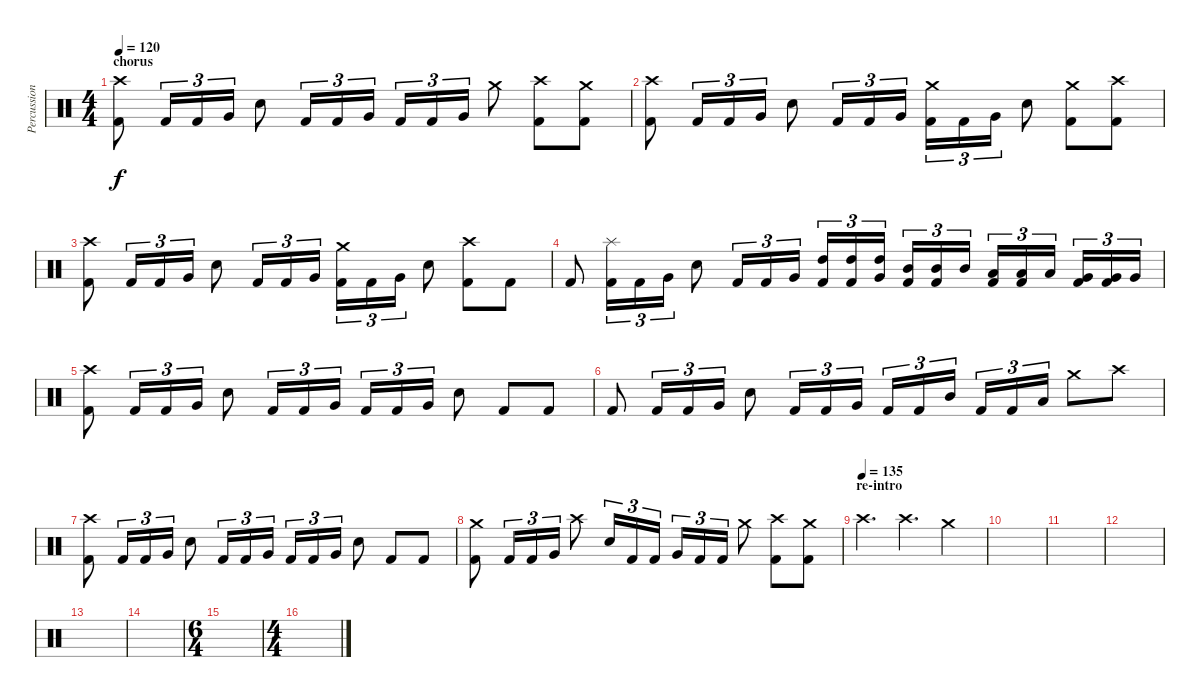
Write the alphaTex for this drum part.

\track ("Percussion" "Percussion") {instrument percussion}
\staff {score}
\articulation defaults
\ts (4 4)
\section ("" "chorus")
\tempo 120
\clef neutral
\ks c
("Crash high (hit)" "Kick (hit) 2").8{dy f} "Kick (hit) 2".16{tu (3 2)} "Kick (hit) 2".16{tu (3 2)} "Very Low Tom (hit)".16{tu (3 2)} "Snare (hit) 2".8 "Kick (hit) 2".16{tu (3 2)} "Kick (hit) 2".16{tu (3 2)} "Very Low Tom (hit)".16{tu (3 2)} "Kick (hit) 2".16{tu (3 2)} "Kick (hit) 2".16{tu (3 2)} "Very Low Tom (hit)".16{tu (3 2)} "Crash medium (hit)".8 ("Crash high (hit)" "Kick (hit) 2").8 ("Crash medium (hit)" "Kick (hit) 2").8 |
("Crash high (hit)" "Kick (hit) 2").8 "Kick (hit) 2".16{tu (3 2)} "Kick (hit) 2".16{tu (3 2)} "Very Low Tom (hit)".16{tu (3 2)} "Snare (hit) 2".8 "Kick (hit) 2".16{tu (3 2)} "Kick (hit) 2".16{tu (3 2)} "Very Low Tom (hit)".16{tu (3 2)} ("Crash medium (hit)" "Kick (hit) 2").16{tu (3 2)} "Kick (hit) 2".16{tu (3 2)} "Very Low Tom (hit)".16{tu (3 2)} "Snare (hit) 2".8 ("Crash medium (hit)" "Kick (hit) 2").8 ("Crash high (hit)" "Kick (hit) 2").8 |
("Crash high (hit)" "Kick (hit) 2").8 "Kick (hit) 2".16{tu (3 2)} "Kick (hit) 2".16{tu (3 2)} "Very Low Tom (hit)".16{tu (3 2)} "Snare (hit) 2".8 "Kick (hit) 2".16{tu (3 2)} "Kick (hit) 2".16{tu (3 2)} "Very Low Tom (hit)".16{tu (3 2)} ("Crash medium (hit)" "Kick (hit) 2").16{tu (3 2)} "Kick (hit) 2".16{tu (3 2)} "Very Low Tom (hit)".16{tu (3 2)} "Snare (hit) 2".8 ("Crash high (hit)" "Kick (hit) 2").8 "Kick (hit) 2".8 |
"Kick (hit) 2".8 ("Splash (hit)" "Kick (hit) 2").16{tu (3 2)} "Kick (hit) 2".16{tu (3 2)} "Very Low Tom (hit)".16{tu (3 2)} "Snare (hit) 2".8 "Kick (hit) 2".16{tu (3 2)} "Kick (hit) 2".16{tu (3 2)} "Very Low Tom (hit)".16{tu (3 2)} ("High Tom (hit)" "Kick (hit) 2").16{tu (3 2)} ("High Tom (hit)" "Kick (hit) 2").16{tu (3 2)} ("High Tom (hit)" "Very Low Tom (hit)").16{tu (3 2) beam splitsecondary} ("Mid Tom (hit)" "Kick (hit) 2").16{tu (3 2)} ("Mid Tom (hit)" "Kick (hit) 2").16{tu (3 2)} "Mid Tom (hit)".16{tu (3 2)} ("Low Tom (hit)" "Kick (hit) 2").16{tu (3 2)} ("Low Tom (hit)" "Kick (hit) 2").16{tu (3 2)} "Low Tom (hit)".16{tu (3 2) beam splitsecondary} ("Very Low Tom (hit)" "Kick (hit) 2").16{tu (3 2)} ("Very Low Tom (hit)" "Kick (hit) 2").16{tu (3 2)} "Very Low Tom (hit)".16{tu (3 2)} |
("Crash high (hit)" "Kick (hit) 2").8 "Kick (hit) 2".16{tu (3 2)} "Kick (hit) 2".16{tu (3 2)} "Very Low Tom (hit)".16{tu (3 2)} "Snare (hit) 2".8 "Kick (hit) 2".16{tu (3 2)} "Kick (hit) 2".16{tu (3 2)} "Very Low Tom (hit)".16{tu (3 2)} "Kick (hit) 2".16{tu (3 2)} "Kick (hit) 2".16{tu (3 2)} "Very Low Tom (hit)".16{tu (3 2)} "Snare (hit) 2".8 "Kick (hit) 2".8 "Kick (hit) 2".8 |
"Kick (hit) 2".8 "Kick (hit) 2".16{tu (3 2)} "Kick (hit) 2".16{tu (3 2)} "Very Low Tom (hit)".16{tu (3 2)} "Snare (hit) 2".8 "Kick (hit) 2".16{tu (3 2)} "Kick (hit) 2".16{tu (3 2)} "Very Low Tom (hit)".16{tu (3 2)} "Kick (hit) 2".16{tu (3 2)} "Kick (hit) 2".16{tu (3 2)} "Mid Tom (hit)".16{tu (3 2) beam splitsecondary} "Kick (hit) 2".16{tu (3 2)} "Kick (hit) 2".16{tu (3 2)} "Low Tom (hit)".16{tu (3 2)} "Crash medium (hit)".8 "Crash high (hit)".8 |
("Crash high (hit)" "Kick (hit) 2").8 "Kick (hit) 2".16{tu (3 2)} "Kick (hit) 2".16{tu (3 2)} "Very Low Tom (hit)".16{tu (3 2)} "Snare (hit) 2".8 "Kick (hit) 2".16{tu (3 2)} "Kick (hit) 2".16{tu (3 2)} "Very Low Tom (hit)".16{tu (3 2)} "Kick (hit) 2".16{tu (3 2)} "Kick (hit) 2".16{tu (3 2)} "Very Low Tom (hit)".16{tu (3 2)} "Snare (hit) 2".8 "Kick (hit) 2".8 "Kick (hit) 2".8 |
("Crash medium (hit)" "Kick (hit) 2").8 "Kick (hit) 2".16{tu (3 2)} "Kick (hit) 2".16{tu (3 2)} "Very Low Tom (hit)".16{tu (3 2)} "Crash high (hit)".8 "Snare (hit) 2".16{tu (3 2)} "Kick (hit) 2".16{tu (3 2)} "Kick (hit) 2".16{tu (3 2)} "Very Low Tom (hit)".16{tu (3 2)} "Kick (hit) 2".16{tu (3 2)} "Kick (hit) 2".16{tu (3 2)} "Crash medium (hit)".8 ("Crash high (hit)" "Kick (hit) 2").8 ("Crash medium (hit)" "Kick (hit) 2").8 |
\section ("" "re-intro")
\tempo (135)
"Crash high (hit)".4{d} "Crash high (hit)".4{d} "Crash medium (hit)".4 |
|
|
|
|
|
\ts (6 4)
|
\ts (4 4)
